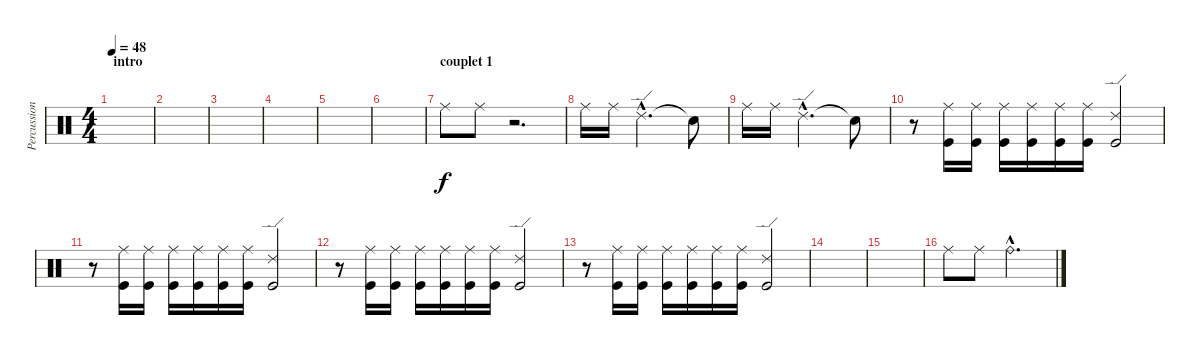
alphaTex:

\track ("Percussions" "Percussion") {instrument percussion}
\staff {score}
\articulation defaults
\ts (4 4)
\section ("" "intro")
\tempo 48
\clef neutral
\ks c
|
|
|
|
|
|
\section ("" "couplet 1")
"Ride (middle)".8 "Ride (middle)".8 r.2{d} |
"Ride (middle)".16 "Ride (middle)".16 "Ride (edge) 2"{hac}.2{d} "Snare (hit)"{t}.8 |
"Ride (middle)".16 "Ride (middle)".16 "Ride (edge) 2"{hac}.2{d} "Snare (hit)"{t}.8 |
r.8 ("Ride (middle)" "Kick (hit)").16 ("Ride (middle)" "Kick (hit)").16 ("Ride (middle)" "Kick (hit)").16 ("Ride (middle)" "Kick (hit)").16 ("Ride (middle)" "Kick (hit)").16 ("Ride (middle)" "Kick (hit)").16 ("Ride (edge) 2" "Kick (hit)").2 |
r.8 ("Ride (middle)" "Kick (hit)").16 ("Ride (middle)" "Kick (hit)").16 ("Ride (middle)" "Kick (hit)").16 ("Ride (middle)" "Kick (hit)").16 ("Ride (middle)" "Kick (hit)").16 ("Ride (middle)" "Kick (hit)").16 ("Ride (edge) 2" "Kick (hit)").2 |
r.8 ("Ride (middle)" "Kick (hit)").16 ("Ride (middle)" "Kick (hit)").16 ("Ride (middle)" "Kick (hit)").16 ("Ride (middle)" "Kick (hit)").16 ("Ride (middle)" "Kick (hit)").16 ("Ride (middle)" "Kick (hit)").16 ("Ride (edge) 2" "Kick (hit)").2 |
r.8 ("Ride (middle)" "Kick (hit)").16 ("Ride (middle)" "Kick (hit)").16 ("Ride (middle)" "Kick (hit)").16 ("Ride (middle)" "Kick (hit)").16 ("Ride (middle)" "Kick (hit)").16 ("Ride (middle)" "Kick (hit)").16 ("Ride (edge) 2" "Kick (hit)").2 |
|
|
"Ride (middle)".8 "Ride (middle)".8 "Ride (bell)"{hac}.2{d}
